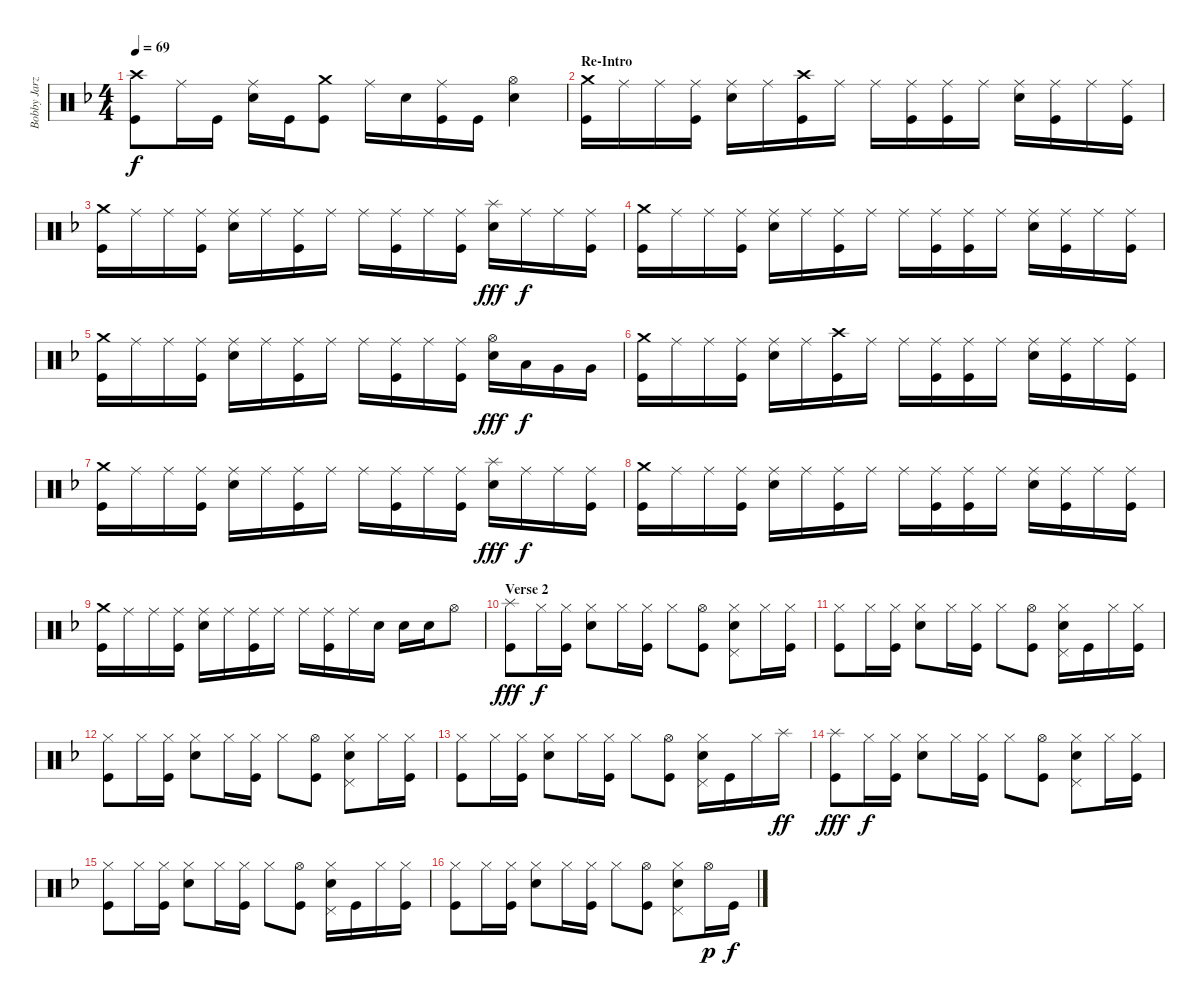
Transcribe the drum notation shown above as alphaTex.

\track ("Bobby Jarzombek" "Bobby Jarz") {instrument percussion}
\staff {score}
\articulation defaults
\ts (4 4)
\tempo 69
\clef neutral
\ks dminor
("Crash high (hit)" "Kick (hit)").8{dy f} "Ride (middle)".16 "Kick (hit)".16 ("Ride (middle)" "Electric Snare (hit)").16 "Kick (hit)".16 ("Crash medium (hit)" "Kick (hit)").8 "Ride (middle)".16 "Electric Snare (hit)".16 ("Ride (middle)" "Kick (hit)").16 "Kick (hit)".16 ("Hi-Hat (open)" "Electric Snare (hit)").4 |
\section ("" "Re-Intro")
("Crash medium (hit)" "Kick (hit)").16 "Ride (middle)".16 "Ride (middle)".16 ("Ride (middle)" "Kick (hit)").16 ("Ride (middle)" "Electric Snare (hit)").16 "Ride (middle)".16 ("Crash high (hit)" "Kick (hit)").16 "Ride (middle)".16 "Ride (middle)".16 ("Ride (middle)" "Kick (hit)").16 ("Ride (middle)" "Kick (hit)").16 "Ride (middle)".16 ("Ride (middle)" "Electric Snare (hit)").16 ("Ride (middle)" "Kick (hit)").16 "Ride (middle)".16 ("Ride (middle)" "Kick (hit)").16 |
("Crash medium (hit)" "Kick (hit)").16 "Ride (middle)".16 "Ride (middle)".16 ("Ride (middle)" "Kick (hit)").16 ("Ride (middle)" "Electric Snare (hit)").16 "Ride (middle)".16 ("Ride (middle)" "Kick (hit)").16 "Ride (middle)".16 "Ride (middle)".16 ("Ride (middle)" "Kick (hit)").16 "Ride (middle)".16 ("Ride (middle)" "Kick (hit)").16 ("Splash (hit)" "Electric Snare (hit)").16{dy fff} "Ride (middle)".16{dy f} "Ride (middle)".16 ("Ride (middle)" "Kick (hit)").16 |
("Crash medium (hit)" "Kick (hit)").16 "Ride (middle)".16 "Ride (middle)".16 ("Ride (middle)" "Kick (hit)").16 ("Ride (middle)" "Electric Snare (hit)").16 "Ride (middle)".16 ("Ride (middle)" "Kick (hit)").16 "Ride (middle)".16 "Ride (middle)".16 ("Ride (middle)" "Kick (hit)").16 ("Ride (middle)" "Kick (hit)").16 "Ride (middle)".16 ("Ride (middle)" "Electric Snare (hit)").16 ("Ride (middle)" "Kick (hit)").16 "Ride (middle)".16 ("Ride (middle)" "Kick (hit)").16 |
("Crash medium (hit)" "Kick (hit)").16 "Ride (middle)".16 "Ride (middle)".16 ("Ride (middle)" "Kick (hit)").16 ("Ride (middle)" "Electric Snare (hit)").16 "Ride (middle)".16 ("Ride (middle)" "Kick (hit)").16 "Ride (middle)".16 "Ride (middle)".16 ("Ride (middle)" "Kick (hit)").16 "Ride (middle)".16 ("Ride (middle)" "Kick (hit)").16 ("Hi-Hat (open)" "Electric Snare (hit)").16{dy fff} "Low Tom (hit)".16{dy f} "Very Low Tom (hit)".16 "Very Low Tom (hit)".16 |
("Crash medium (hit)" "Kick (hit)").16 "Ride (middle)".16 "Ride (middle)".16 ("Ride (middle)" "Kick (hit)").16 ("Ride (middle)" "Electric Snare (hit)").16 "Ride (middle)".16 ("Crash high (hit)" "Kick (hit)").16 "Ride (middle)".16 "Ride (middle)".16 ("Ride (middle)" "Kick (hit)").16 ("Ride (middle)" "Kick (hit)").16 "Ride (middle)".16 ("Ride (middle)" "Electric Snare (hit)").16 ("Ride (middle)" "Kick (hit)").16 "Ride (middle)".16 ("Ride (middle)" "Kick (hit)").16 |
("Crash medium (hit)" "Kick (hit)").16 "Ride (middle)".16 "Ride (middle)".16 ("Ride (middle)" "Kick (hit)").16 ("Ride (middle)" "Electric Snare (hit)").16 "Ride (middle)".16 ("Ride (middle)" "Kick (hit)").16 "Ride (middle)".16 "Ride (middle)".16 ("Ride (middle)" "Kick (hit)").16 "Ride (middle)".16 ("Ride (middle)" "Kick (hit)").16 ("Splash (hit)" "Electric Snare (hit)").16{dy fff} "Ride (middle)".16{dy f} "Ride (middle)".16 ("Ride (middle)" "Kick (hit)").16 |
("Crash medium (hit)" "Kick (hit)").16 "Ride (middle)".16 "Ride (middle)".16 ("Ride (middle)" "Kick (hit)").16 ("Ride (middle)" "Electric Snare (hit)").16 "Ride (middle)".16 ("Ride (middle)" "Kick (hit)").16 "Ride (middle)".16 "Ride (middle)".16 ("Ride (middle)" "Kick (hit)").16 ("Ride (middle)" "Kick (hit)").16 "Ride (middle)".16 ("Ride (middle)" "Electric Snare (hit)").16 ("Ride (middle)" "Kick (hit)").16 "Ride (middle)".16 ("Ride (middle)" "Kick (hit)").16 |
("Crash medium (hit)" "Kick (hit)").16 "Ride (middle)".16 "Ride (middle)".16 ("Ride (middle)" "Kick (hit)").16 ("Ride (middle)" "Electric Snare (hit)").16 "Ride (middle)".16 ("Ride (middle)" "Kick (hit)").16 "Ride (middle)".16 "Ride (middle)".16 ("Ride (middle)" "Kick (hit)").16 "Ride (middle)".16 "Electric Snare (hit)".16 "Electric Snare (hit)".16 "Electric Snare (hit)".16 "Hi-Hat (open)".8 |
\section ("" "Verse 2")
("Splash (hit)" "Kick (hit)").8{dy fff} "Hi-Hat (closed)".16{dy f} ("Hi-Hat (closed)" "Kick (hit)").16 ("Hi-Hat (closed)" "Electric Snare (hit)").8 "Hi-Hat (closed)".16 ("Hi-Hat (closed)" "Kick (hit)").16 "Hi-Hat (closed)".8 ("Hi-Hat (open)" "Kick (hit)").8 ("Hi-Hat (closed)" "Electric Snare (hit)" "Pedal Hi-Hat (hit)").8 "Hi-Hat (closed)".16 ("Hi-Hat (closed)" "Kick (hit)").16 |
("Hi-Hat (closed)" "Kick (hit)").8 "Hi-Hat (closed)".16 ("Hi-Hat (closed)" "Kick (hit)").16 ("Hi-Hat (closed)" "Electric Snare (hit)").8 "Hi-Hat (closed)".16 ("Hi-Hat (closed)" "Kick (hit)").16 "Hi-Hat (closed)".8 ("Hi-Hat (open)" "Kick (hit)").8 ("Hi-Hat (closed)" "Electric Snare (hit)" "Pedal Hi-Hat (hit)").16 "Kick (hit)".16 "Hi-Hat (closed)".16 ("Hi-Hat (closed)" "Kick (hit)").16 |
("Hi-Hat (closed)" "Kick (hit)").8 "Hi-Hat (closed)".16 ("Hi-Hat (closed)" "Kick (hit)").16 ("Hi-Hat (closed)" "Electric Snare (hit)").8 "Hi-Hat (closed)".16 ("Hi-Hat (closed)" "Kick (hit)").16 "Hi-Hat (closed)".8 ("Hi-Hat (open)" "Kick (hit)").8 ("Hi-Hat (closed)" "Electric Snare (hit)" "Pedal Hi-Hat (hit)").8 "Hi-Hat (closed)".16 ("Hi-Hat (closed)" "Kick (hit)").16 |
("Hi-Hat (closed)" "Kick (hit)").8 "Hi-Hat (closed)".16 ("Hi-Hat (closed)" "Kick (hit)").16 ("Hi-Hat (closed)" "Electric Snare (hit)").8 "Hi-Hat (closed)".16 ("Hi-Hat (closed)" "Kick (hit)").16 "Hi-Hat (closed)".8 ("Hi-Hat (open)" "Kick (hit)").8 ("Hi-Hat (closed)" "Electric Snare (hit)" "Pedal Hi-Hat (hit)").16 "Kick (hit)".16 "Hi-Hat (closed)".16 "Splash (hit)".16{dy ff} |
("Splash (hit)" "Kick (hit)").8{dy fff} "Hi-Hat (closed)".16{dy f} ("Hi-Hat (closed)" "Kick (hit)").16 ("Hi-Hat (closed)" "Electric Snare (hit)").8 "Hi-Hat (closed)".16 ("Hi-Hat (closed)" "Kick (hit)").16 "Hi-Hat (closed)".8 ("Hi-Hat (open)" "Kick (hit)").8 ("Hi-Hat (closed)" "Electric Snare (hit)" "Pedal Hi-Hat (hit)").8 "Hi-Hat (closed)".16 ("Hi-Hat (closed)" "Kick (hit)").16 |
("Hi-Hat (closed)" "Kick (hit)").8 "Hi-Hat (closed)".16 ("Hi-Hat (closed)" "Kick (hit)").16 ("Hi-Hat (closed)" "Electric Snare (hit)").8 "Hi-Hat (closed)".16 ("Hi-Hat (closed)" "Kick (hit)").16 "Hi-Hat (closed)".8 ("Hi-Hat (open)" "Kick (hit)").8 ("Hi-Hat (closed)" "Electric Snare (hit)" "Pedal Hi-Hat (hit)").16 "Kick (hit)".16 "Hi-Hat (closed)".16 ("Hi-Hat (closed)" "Kick (hit)").16 |
("Hi-Hat (closed)" "Kick (hit)").8 "Hi-Hat (closed)".16 ("Hi-Hat (closed)" "Kick (hit)").16 ("Hi-Hat (closed)" "Electric Snare (hit)").8 "Hi-Hat (closed)".16 ("Hi-Hat (closed)" "Kick (hit)").16 "Hi-Hat (closed)".8 ("Hi-Hat (open)" "Kick (hit)").8 ("Hi-Hat (closed)" "Electric Snare (hit)" "Pedal Hi-Hat (hit)").8 "Hi-Hat (open)".16{dy p} "Kick (hit)".16{dy f}
